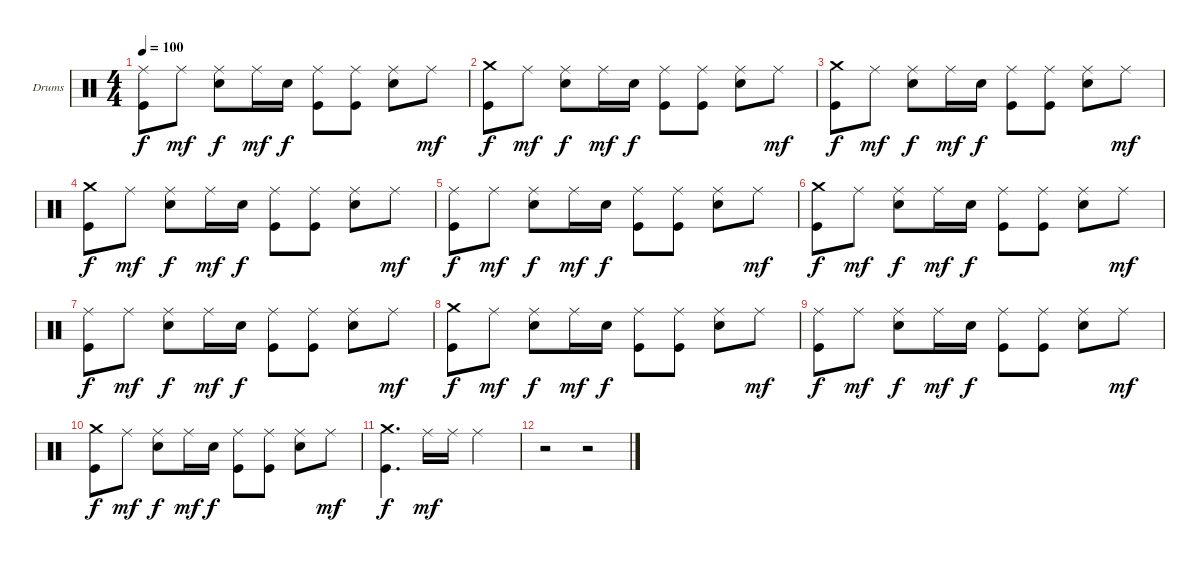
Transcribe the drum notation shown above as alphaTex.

\defaultSystemsLayout 4
\bracketExtendMode groupsimilarinstruments
\firstSystemTrackNameOrientation horizontal
\otherSystemsTrackNameOrientation horizontal
\track ("Drums" "Drums") {instrument percussion}
\staff {score}
\articulation defaults
\ts (4 4)
\tempo 100
\clef neutral
\ks c
("Kick (hit)" "Ride (middle)").8{dy f} "Ride (middle)".8{dy mf} ("Snare (hit) 2" "Ride (middle)").8{dy f} "Ride (middle)".16{dy mf} "Snare (hit) 2".16{dy f} ("Kick (hit)" "Ride (middle)").8 ("Kick (hit)" "Ride (middle)").8 ("Snare (hit) 2" "Ride (middle)").8 "Ride (middle)".8{dy mf} |
("Kick (hit)" "Crash medium (hit)").8{dy f} "Ride (middle)".8{dy mf} ("Snare (hit) 2" "Ride (middle)").8{dy f} "Ride (middle)".16{dy mf} "Snare (hit) 2".16{dy f} ("Kick (hit)" "Ride (middle)").8 ("Kick (hit)" "Ride (middle)").8 ("Snare (hit) 2" "Ride (middle)").8 "Ride (middle)".8{dy mf} |
("Kick (hit)" "Crash medium (hit)").8{dy f} "Ride (middle)".8{dy mf} ("Snare (hit) 2" "Ride (middle)").8{dy f} "Ride (middle)".16{dy mf} "Snare (hit) 2".16{dy f} ("Kick (hit)" "Ride (middle)").8 ("Kick (hit)" "Ride (middle)").8 ("Snare (hit) 2" "Ride (middle)").8 "Ride (middle)".8{dy mf} |
("Kick (hit)" "Crash medium (hit)").8{dy f} "Ride (middle)".8{dy mf} ("Snare (hit) 2" "Ride (middle)").8{dy f} "Ride (middle)".16{dy mf} "Snare (hit) 2".16{dy f} ("Kick (hit)" "Ride (middle)").8 ("Kick (hit)" "Ride (middle)").8 ("Snare (hit) 2" "Ride (middle)").8 "Ride (middle)".8{dy mf} |
("Kick (hit)" "Ride (middle)").8{dy f} "Ride (middle)".8{dy mf} ("Snare (hit) 2" "Ride (middle)").8{dy f} "Ride (middle)".16{dy mf} "Snare (hit) 2".16{dy f} ("Kick (hit)" "Ride (middle)").8 ("Kick (hit)" "Ride (middle)").8 ("Snare (hit) 2" "Ride (middle)").8 "Ride (middle)".8{dy mf} |
("Kick (hit)" "Crash medium (hit)").8{dy f} "Ride (middle)".8{dy mf} ("Snare (hit) 2" "Ride (middle)").8{dy f} "Ride (middle)".16{dy mf} "Snare (hit) 2".16{dy f} ("Kick (hit)" "Ride (middle)").8 ("Kick (hit)" "Ride (middle)").8 ("Snare (hit) 2" "Ride (middle)").8 "Ride (middle)".8{dy mf} |
("Kick (hit)" "Ride (middle)").8{dy f} "Ride (middle)".8{dy mf} ("Snare (hit) 2" "Ride (middle)").8{dy f} "Ride (middle)".16{dy mf} "Snare (hit) 2".16{dy f} ("Kick (hit)" "Ride (middle)").8 ("Kick (hit)" "Ride (middle)").8 ("Snare (hit) 2" "Ride (middle)").8 "Ride (middle)".8{dy mf} |
("Kick (hit)" "Crash medium (hit)").8{dy f} "Ride (middle)".8{dy mf} ("Snare (hit) 2" "Ride (middle)").8{dy f} "Ride (middle)".16{dy mf} "Snare (hit) 2".16{dy f} ("Kick (hit)" "Ride (middle)").8 ("Kick (hit)" "Ride (middle)").8 ("Snare (hit) 2" "Ride (middle)").8 "Ride (middle)".8{dy mf} |
("Kick (hit)" "Ride (middle)").8{dy f} "Ride (middle)".8{dy mf} ("Snare (hit) 2" "Ride (middle)").8{dy f} "Ride (middle)".16{dy mf} "Snare (hit) 2".16{dy f} ("Kick (hit)" "Ride (middle)").8 ("Kick (hit)" "Ride (middle)").8 ("Snare (hit) 2" "Ride (middle)").8 "Ride (middle)".8{dy mf} |
("Kick (hit)" "Crash medium (hit)").8{dy f} "Ride (middle)".8{dy mf} ("Snare (hit) 2" "Ride (middle)").8{dy f} "Ride (middle)".16{dy mf} "Snare (hit) 2".16{dy f} ("Kick (hit)" "Ride (middle)").8 ("Kick (hit)" "Ride (middle)").8 ("Snare (hit) 2" "Ride (middle)").8 "Ride (middle)".8{dy mf} |
("Kick (hit)" "Crash medium (hit)").4{d dy f} "Ride (middle)".16{dy mf} "Ride (middle)".16 "Ride (middle)".2 |
r.2 r.2
